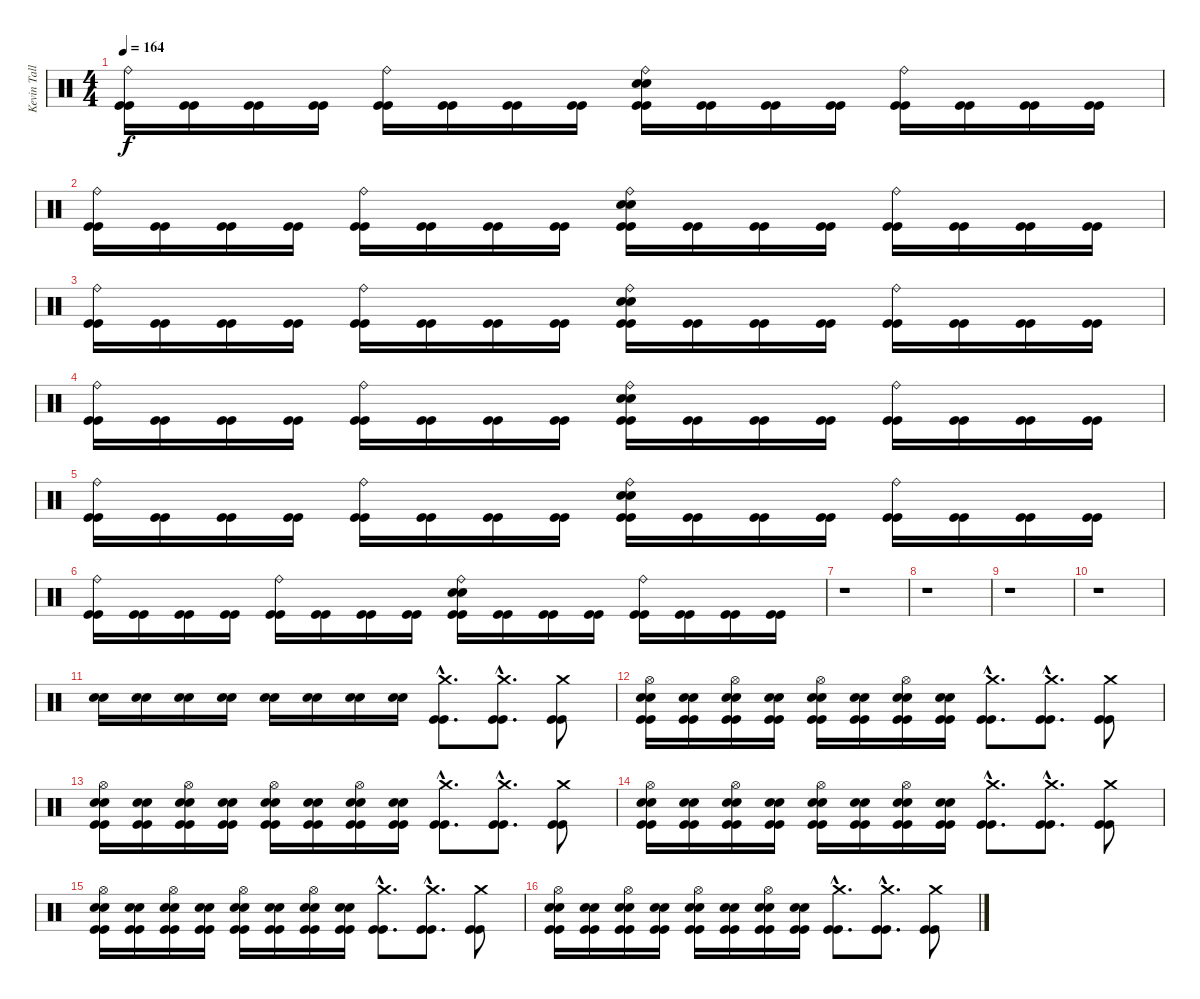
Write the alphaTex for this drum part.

\track ("Kevin Talley" "Kevin Tall") {instrument percussion}
\staff {score}
\articulation defaults
\ts (4 4)
\tempo 164
\clef neutral
\ks c
("Ride (bell)" "Kick (hit)" "Kick (hit)").16{dy f} ("Kick (hit)" "Kick (hit)").16 ("Kick (hit)" "Kick (hit)").16 ("Kick (hit)" "Kick (hit)").16 ("Ride (bell)" "Kick (hit)" "Kick (hit)").16 ("Kick (hit)" "Kick (hit)").16 ("Kick (hit)" "Kick (hit)").16 ("Kick (hit)" "Kick (hit)").16 ("Snare (hit) 2" "Snare (hit) 2" "Ride (bell)" "Kick (hit)" "Kick (hit)").16 ("Kick (hit)" "Kick (hit)").16 ("Kick (hit)" "Kick (hit)").16 ("Kick (hit)" "Kick (hit)").16 ("Ride (bell)" "Kick (hit)" "Kick (hit)").16 ("Kick (hit)" "Kick (hit)").16 ("Kick (hit)" "Kick (hit)").16 ("Kick (hit)" "Kick (hit)").16 |
("Ride (bell)" "Kick (hit)" "Kick (hit)").16 ("Kick (hit)" "Kick (hit)").16 ("Kick (hit)" "Kick (hit)").16 ("Kick (hit)" "Kick (hit)").16 ("Ride (bell)" "Kick (hit)" "Kick (hit)").16 ("Kick (hit)" "Kick (hit)").16 ("Kick (hit)" "Kick (hit)").16 ("Kick (hit)" "Kick (hit)").16 ("Snare (hit) 2" "Snare (hit) 2" "Ride (bell)" "Kick (hit)" "Kick (hit)").16 ("Kick (hit)" "Kick (hit)").16 ("Kick (hit)" "Kick (hit)").16 ("Kick (hit)" "Kick (hit)").16 ("Ride (bell)" "Kick (hit)" "Kick (hit)").16 ("Kick (hit)" "Kick (hit)").16 ("Kick (hit)" "Kick (hit)").16 ("Kick (hit)" "Kick (hit)").16 |
("Ride (bell)" "Kick (hit)" "Kick (hit)").16 ("Kick (hit)" "Kick (hit)").16 ("Kick (hit)" "Kick (hit)").16 ("Kick (hit)" "Kick (hit)").16 ("Ride (bell)" "Kick (hit)" "Kick (hit)").16 ("Kick (hit)" "Kick (hit)").16 ("Kick (hit)" "Kick (hit)").16 ("Kick (hit)" "Kick (hit)").16 ("Snare (hit) 2" "Snare (hit) 2" "Ride (bell)" "Kick (hit)" "Kick (hit)").16 ("Kick (hit)" "Kick (hit)").16 ("Kick (hit)" "Kick (hit)").16 ("Kick (hit)" "Kick (hit)").16 ("Ride (bell)" "Kick (hit)" "Kick (hit)").16 ("Kick (hit)" "Kick (hit)").16 ("Kick (hit)" "Kick (hit)").16 ("Kick (hit)" "Kick (hit)").16 |
("Ride (bell)" "Kick (hit)" "Kick (hit)").16 ("Kick (hit)" "Kick (hit)").16 ("Kick (hit)" "Kick (hit)").16 ("Kick (hit)" "Kick (hit)").16 ("Ride (bell)" "Kick (hit)" "Kick (hit)").16 ("Kick (hit)" "Kick (hit)").16 ("Kick (hit)" "Kick (hit)").16 ("Kick (hit)" "Kick (hit)").16 ("Snare (hit) 2" "Snare (hit) 2" "Ride (bell)" "Kick (hit)" "Kick (hit)").16 ("Kick (hit)" "Kick (hit)").16 ("Kick (hit)" "Kick (hit)").16 ("Kick (hit)" "Kick (hit)").16 ("Ride (bell)" "Kick (hit)" "Kick (hit)").16 ("Kick (hit)" "Kick (hit)").16 ("Kick (hit)" "Kick (hit)").16 ("Kick (hit)" "Kick (hit)").16 |
("Ride (bell)" "Kick (hit)" "Kick (hit)").16 ("Kick (hit)" "Kick (hit)").16 ("Kick (hit)" "Kick (hit)").16 ("Kick (hit)" "Kick (hit)").16 ("Ride (bell)" "Kick (hit)" "Kick (hit)").16 ("Kick (hit)" "Kick (hit)").16 ("Kick (hit)" "Kick (hit)").16 ("Kick (hit)" "Kick (hit)").16 ("Snare (hit) 2" "Snare (hit) 2" "Ride (bell)" "Kick (hit)" "Kick (hit)").16 ("Kick (hit)" "Kick (hit)").16 ("Kick (hit)" "Kick (hit)").16 ("Kick (hit)" "Kick (hit)").16 ("Ride (bell)" "Kick (hit)" "Kick (hit)").16 ("Kick (hit)" "Kick (hit)").16 ("Kick (hit)" "Kick (hit)").16 ("Kick (hit)" "Kick (hit)").16 |
("Ride (bell)" "Kick (hit)" "Kick (hit)").16 ("Kick (hit)" "Kick (hit)").16 ("Kick (hit)" "Kick (hit)").16 ("Kick (hit)" "Kick (hit)").16 ("Ride (bell)" "Kick (hit)" "Kick (hit)").16 ("Kick (hit)" "Kick (hit)").16 ("Kick (hit)" "Kick (hit)").16 ("Kick (hit)" "Kick (hit)").16 ("Snare (hit) 2" "Snare (hit) 2" "Ride (bell)" "Kick (hit)" "Kick (hit)").16 ("Kick (hit)" "Kick (hit)").16 ("Kick (hit)" "Kick (hit)").16 ("Kick (hit)" "Kick (hit)").16 ("Ride (bell)" "Kick (hit)" "Kick (hit)").16 ("Kick (hit)" "Kick (hit)").16 ("Kick (hit)" "Kick (hit)").16 ("Kick (hit)" "Kick (hit)").16 |
r.1 |
r.1 |
r.1 |
r.1 |
("Snare (hit) 2" "Snare (hit) 2").16 ("Snare (hit) 2" "Snare (hit) 2").16 ("Snare (hit) 2" "Snare (hit) 2").16 ("Snare (hit) 2" "Snare (hit) 2").16 ("Snare (hit) 2" "Snare (hit) 2").16 ("Snare (hit) 2" "Snare (hit) 2").16 ("Snare (hit) 2" "Snare (hit) 2").16 ("Snare (hit) 2" "Snare (hit) 2").16 ("Crash medium (hit)"{hac} "Kick (hit)"{hac} "Kick (hit)"{hac}).8{d} ("Crash medium (hit)"{hac} "Kick (hit)"{hac} "Kick (hit)"{hac}).8{d} ("Crash medium (hit)" "Kick (hit)" "Kick (hit)").8 |
("Snare (hit) 2" "Snare (hit) 2" "Hi-Hat (open)" "Kick (hit)" "Kick (hit)").16 ("Snare (hit) 2" "Snare (hit) 2" "Kick (hit)" "Kick (hit)").16 ("Snare (hit) 2" "Snare (hit) 2" "Hi-Hat (open)" "Kick (hit)" "Kick (hit)").16 ("Snare (hit) 2" "Snare (hit) 2" "Kick (hit)" "Kick (hit)").16 ("Snare (hit) 2" "Snare (hit) 2" "Hi-Hat (open)" "Kick (hit)" "Kick (hit)").16 ("Snare (hit) 2" "Snare (hit) 2" "Kick (hit)" "Kick (hit)").16 ("Snare (hit) 2" "Snare (hit) 2" "Hi-Hat (open)" "Kick (hit)" "Kick (hit)").16 ("Snare (hit) 2" "Snare (hit) 2" "Kick (hit)" "Kick (hit)").16 ("Crash medium (hit)"{hac} "Kick (hit)"{hac} "Kick (hit)"{hac}).8{d} ("Crash medium (hit)"{hac} "Kick (hit)"{hac} "Kick (hit)"{hac}).8{d} ("Crash medium (hit)" "Kick (hit)" "Kick (hit)").8 |
("Snare (hit) 2" "Snare (hit) 2" "Hi-Hat (open)" "Kick (hit)" "Kick (hit)").16 ("Snare (hit) 2" "Snare (hit) 2" "Kick (hit)" "Kick (hit)").16 ("Snare (hit) 2" "Snare (hit) 2" "Hi-Hat (open)" "Kick (hit)" "Kick (hit)").16 ("Snare (hit) 2" "Snare (hit) 2" "Kick (hit)" "Kick (hit)").16 ("Snare (hit) 2" "Snare (hit) 2" "Hi-Hat (open)" "Kick (hit)" "Kick (hit)").16 ("Snare (hit) 2" "Snare (hit) 2" "Kick (hit)" "Kick (hit)").16 ("Snare (hit) 2" "Snare (hit) 2" "Hi-Hat (open)" "Kick (hit)" "Kick (hit)").16 ("Snare (hit) 2" "Snare (hit) 2" "Kick (hit)" "Kick (hit)").16 ("Crash medium (hit)"{hac} "Kick (hit)"{hac} "Kick (hit)"{hac}).8{d} ("Crash medium (hit)"{hac} "Kick (hit)"{hac} "Kick (hit)"{hac}).8{d} ("Crash medium (hit)" "Kick (hit)" "Kick (hit)").8 |
("Snare (hit) 2" "Snare (hit) 2" "Hi-Hat (open)" "Kick (hit)" "Kick (hit)").16 ("Snare (hit) 2" "Snare (hit) 2" "Kick (hit)" "Kick (hit)").16 ("Snare (hit) 2" "Snare (hit) 2" "Hi-Hat (open)" "Kick (hit)" "Kick (hit)").16 ("Snare (hit) 2" "Snare (hit) 2" "Kick (hit)" "Kick (hit)").16 ("Snare (hit) 2" "Snare (hit) 2" "Hi-Hat (open)" "Kick (hit)" "Kick (hit)").16 ("Snare (hit) 2" "Snare (hit) 2" "Kick (hit)" "Kick (hit)").16 ("Snare (hit) 2" "Snare (hit) 2" "Hi-Hat (open)" "Kick (hit)" "Kick (hit)").16 ("Snare (hit) 2" "Snare (hit) 2" "Kick (hit)" "Kick (hit)").16 ("Crash medium (hit)"{hac} "Kick (hit)"{hac} "Kick (hit)"{hac}).8{d} ("Crash medium (hit)"{hac} "Kick (hit)"{hac} "Kick (hit)"{hac}).8{d} ("Crash medium (hit)" "Kick (hit)" "Kick (hit)").8 |
("Snare (hit) 2" "Snare (hit) 2" "Hi-Hat (open)" "Kick (hit)" "Kick (hit)").16 ("Snare (hit) 2" "Snare (hit) 2" "Kick (hit)" "Kick (hit)").16 ("Snare (hit) 2" "Snare (hit) 2" "Hi-Hat (open)" "Kick (hit)" "Kick (hit)").16 ("Snare (hit) 2" "Snare (hit) 2" "Kick (hit)" "Kick (hit)").16 ("Snare (hit) 2" "Snare (hit) 2" "Hi-Hat (open)" "Kick (hit)" "Kick (hit)").16 ("Snare (hit) 2" "Snare (hit) 2" "Kick (hit)" "Kick (hit)").16 ("Snare (hit) 2" "Snare (hit) 2" "Hi-Hat (open)" "Kick (hit)" "Kick (hit)").16 ("Snare (hit) 2" "Snare (hit) 2" "Kick (hit)" "Kick (hit)").16 ("Crash medium (hit)"{hac} "Kick (hit)"{hac} "Kick (hit)"{hac}).8{d} ("Crash medium (hit)"{hac} "Kick (hit)"{hac} "Kick (hit)"{hac}).8{d} ("Crash medium (hit)" "Kick (hit)" "Kick (hit)").8 |
("Snare (hit) 2" "Snare (hit) 2" "Hi-Hat (open)" "Kick (hit)" "Kick (hit)").16 ("Snare (hit) 2" "Snare (hit) 2" "Kick (hit)" "Kick (hit)").16 ("Snare (hit) 2" "Snare (hit) 2" "Hi-Hat (open)" "Kick (hit)" "Kick (hit)").16 ("Snare (hit) 2" "Snare (hit) 2" "Kick (hit)" "Kick (hit)").16 ("Snare (hit) 2" "Snare (hit) 2" "Hi-Hat (open)" "Kick (hit)" "Kick (hit)").16 ("Snare (hit) 2" "Snare (hit) 2" "Kick (hit)" "Kick (hit)").16 ("Snare (hit) 2" "Snare (hit) 2" "Hi-Hat (open)" "Kick (hit)" "Kick (hit)").16 ("Snare (hit) 2" "Snare (hit) 2" "Kick (hit)" "Kick (hit)").16 ("Crash medium (hit)"{hac} "Kick (hit)"{hac} "Kick (hit)"{hac}).8{d} ("Crash medium (hit)"{hac} "Kick (hit)"{hac} "Kick (hit)"{hac}).8{d} ("Crash medium (hit)" "Kick (hit)" "Kick (hit)").8
